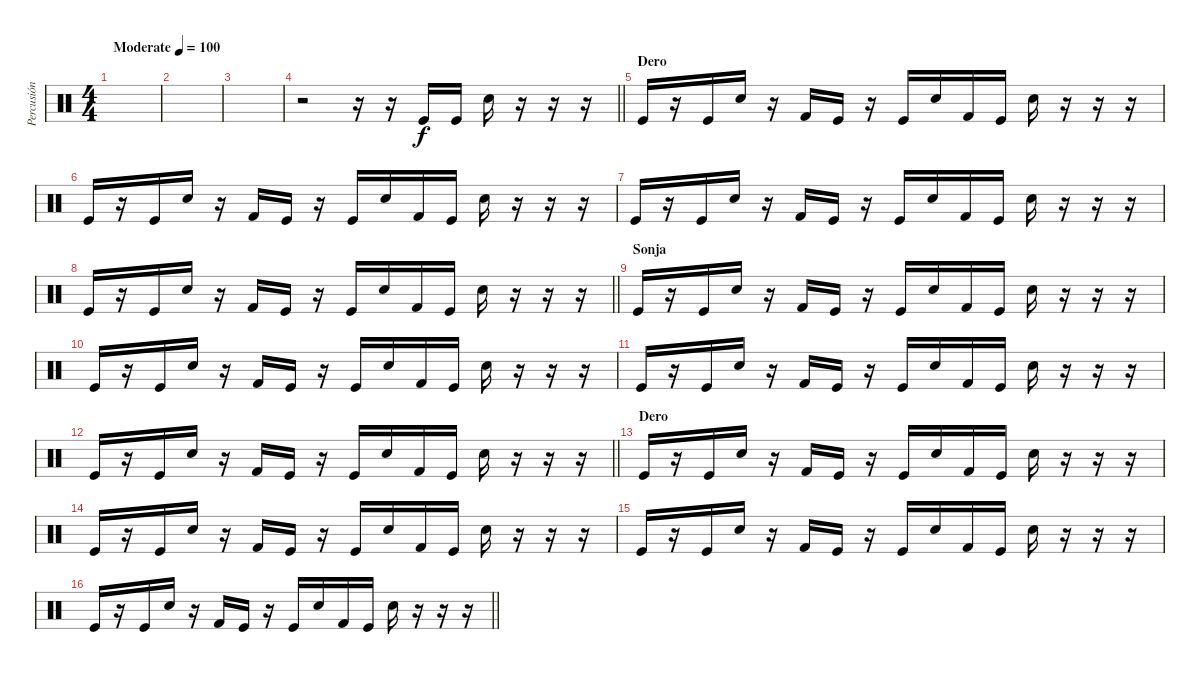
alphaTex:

\track ("Percusión" "Percusión") {instrument percussion}
\staff {score}
\articulation defaults
\ts (4 4)
\tempo (100 "Moderate")
\clef neutral
\ks c
|
|
|
\barLineRight lightlight
r.2 r.16 r.16 "Kick (hit)".16 "Kick (hit)".16 "Electric Snare (hit)".16 r.16 r.16 r.16 |
\section ("" "Dero")
"Kick (hit)".16 r.16 "Kick (hit)".16 "Electric Snare (hit)".16 r.16 "Kick (hit) 2".16 "Kick (hit)".16 r.16 "Kick (hit)".16 "Electric Snare (hit)".16 "Kick (hit) 2".16 "Kick (hit)".16 "Electric Snare (hit)".16 r.16 r.16 r.16 |
"Kick (hit)".16 r.16 "Kick (hit)".16 "Electric Snare (hit)".16 r.16 "Kick (hit) 2".16 "Kick (hit)".16 r.16 "Kick (hit)".16 "Electric Snare (hit)".16 "Kick (hit) 2".16 "Kick (hit)".16 "Electric Snare (hit)".16 r.16 r.16 r.16 |
"Kick (hit)".16 r.16 "Kick (hit)".16 "Electric Snare (hit)".16 r.16 "Kick (hit) 2".16 "Kick (hit)".16 r.16 "Kick (hit)".16 "Electric Snare (hit)".16 "Kick (hit) 2".16 "Kick (hit)".16 "Electric Snare (hit)".16 r.16 r.16 r.16 |
\barLineRight lightlight "Kick (hit)".16
r.16 "Kick (hit)".16 "Electric Snare (hit)".16 r.16 "Kick (hit) 2".16 "Kick (hit)".16 r.16 "Kick (hit)".16 "Electric Snare (hit)".16 "Kick (hit) 2".16 "Kick (hit)".16 "Electric Snare (hit)".16 r.16 r.16 r.16 |
\section ("" "Sonja")
"Kick (hit)".16 r.16 "Kick (hit)".16 "Electric Snare (hit)".16 r.16 "Kick (hit) 2".16 "Kick (hit)".16 r.16 "Kick (hit)".16 "Electric Snare (hit)".16 "Kick (hit) 2".16 "Kick (hit)".16 "Electric Snare (hit)".16 r.16 r.16 r.16 |
"Kick (hit)".16 r.16 "Kick (hit)".16 "Electric Snare (hit)".16 r.16 "Kick (hit) 2".16 "Kick (hit)".16 r.16 "Kick (hit)".16 "Electric Snare (hit)".16 "Kick (hit) 2".16 "Kick (hit)".16 "Electric Snare (hit)".16 r.16 r.16 r.16 |
"Kick (hit)".16 r.16 "Kick (hit)".16 "Electric Snare (hit)".16 r.16 "Kick (hit) 2".16 "Kick (hit)".16 r.16 "Kick (hit)".16 "Electric Snare (hit)".16 "Kick (hit) 2".16 "Kick (hit)".16 "Electric Snare (hit)".16 r.16 r.16 r.16 |
\barLineRight lightlight "Kick (hit)".16
r.16 "Kick (hit)".16 "Electric Snare (hit)".16 r.16 "Kick (hit) 2".16 "Kick (hit)".16 r.16 "Kick (hit)".16 "Electric Snare (hit)".16 "Kick (hit) 2".16 "Kick (hit)".16 "Electric Snare (hit)".16 r.16 r.16 r.16 |
\section ("" "Dero")
"Kick (hit)".16 r.16 "Kick (hit)".16 "Electric Snare (hit)".16 r.16 "Kick (hit) 2".16 "Kick (hit)".16 r.16 "Kick (hit)".16 "Electric Snare (hit)".16 "Kick (hit) 2".16 "Kick (hit)".16 "Electric Snare (hit)".16 r.16 r.16 r.16 |
"Kick (hit)".16 r.16 "Kick (hit)".16 "Electric Snare (hit)".16 r.16 "Kick (hit) 2".16 "Kick (hit)".16 r.16 "Kick (hit)".16 "Electric Snare (hit)".16 "Kick (hit) 2".16 "Kick (hit)".16 "Electric Snare (hit)".16 r.16 r.16 r.16 |
"Kick (hit)".16 r.16 "Kick (hit)".16 "Electric Snare (hit)".16 r.16 "Kick (hit) 2".16 "Kick (hit)".16 r.16 "Kick (hit)".16 "Electric Snare (hit)".16 "Kick (hit) 2".16 "Kick (hit)".16 "Electric Snare (hit)".16 r.16 r.16 r.16 |
\barLineRight lightlight "Kick (hit)".16
r.16 "Kick (hit)".16 "Electric Snare (hit)".16 r.16 "Kick (hit) 2".16 "Kick (hit)".16 r.16 "Kick (hit)".16 "Electric Snare (hit)".16 "Kick (hit) 2".16 "Kick (hit)".16 "Electric Snare (hit)".16 r.16 r.16 r.16
